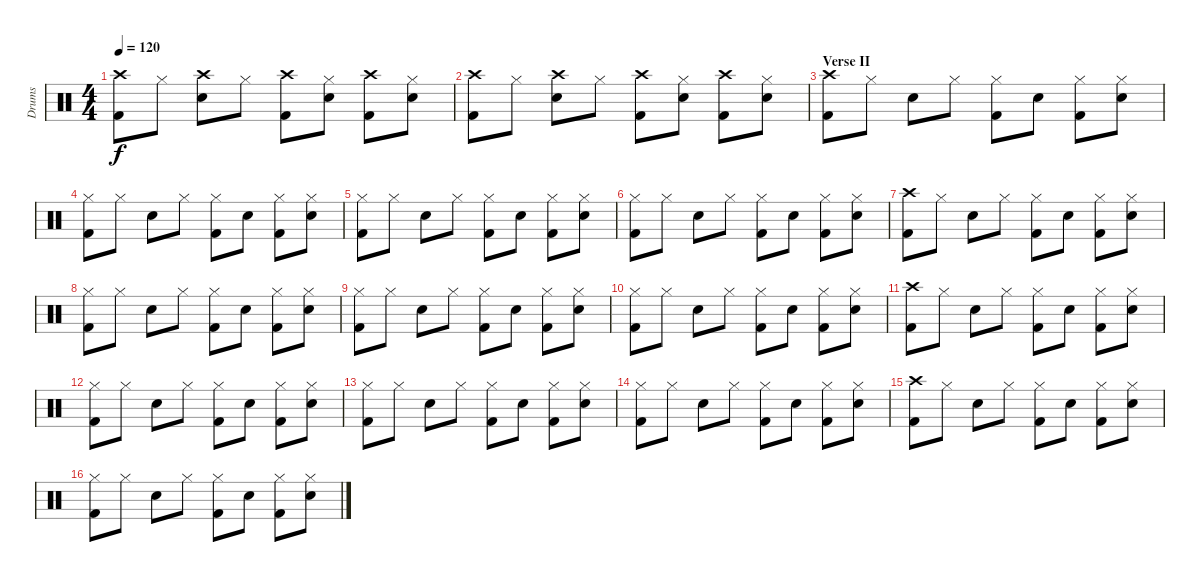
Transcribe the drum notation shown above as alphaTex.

\track ("Drums" "Drums") {instrument percussion}
\staff {score}
\articulation defaults
\ts (4 4)
\tempo 120
\clef neutral
\ks c
("Kick (hit) 2" "Crash high (hit)").8{dy f} "Hi-Hat (closed)".8 ("Snare (hit) 2" "Crash high (hit)").8 "Hi-Hat (closed)".8 ("Kick (hit) 2" "Crash high (hit)").8 ("Snare (hit) 2" "Hi-Hat (closed)").8 ("Kick (hit) 2" "Crash high (hit)").8 ("Snare (hit) 2" "Hi-Hat (closed)").8 |
("Kick (hit) 2" "Crash high (hit)").8 "Hi-Hat (closed)".8 ("Snare (hit) 2" "Crash high (hit)").8 "Hi-Hat (closed)".8 ("Kick (hit) 2" "Crash high (hit)").8 ("Snare (hit) 2" "Hi-Hat (closed)").8 ("Kick (hit) 2" "Crash high (hit)").8 ("Snare (hit) 2" "Hi-Hat (closed)").8 |
\section ("" "Verse II")
("Kick (hit) 2" "Crash high (hit)").8 "Hi-Hat (closed)".8 "Snare (hit) 2".8 "Hi-Hat (closed)".8 ("Kick (hit) 2" "Hi-Hat (closed)").8 "Snare (hit) 2".8 ("Kick (hit) 2" "Hi-Hat (closed)").8 ("Snare (hit) 2" "Hi-Hat (closed)").8 |
("Kick (hit) 2" "Hi-Hat (closed)").8 "Hi-Hat (closed)".8 "Snare (hit) 2".8 "Hi-Hat (closed)".8 ("Kick (hit) 2" "Hi-Hat (closed)").8 "Snare (hit) 2".8 ("Kick (hit) 2" "Hi-Hat (closed)").8 ("Snare (hit) 2" "Hi-Hat (closed)").8 |
("Kick (hit) 2" "Hi-Hat (closed)").8 "Hi-Hat (closed)".8 "Snare (hit) 2".8 "Hi-Hat (closed)".8 ("Kick (hit) 2" "Hi-Hat (closed)").8 "Snare (hit) 2".8 ("Kick (hit) 2" "Hi-Hat (closed)").8 ("Snare (hit) 2" "Hi-Hat (closed)").8 |
("Kick (hit) 2" "Hi-Hat (closed)").8 "Hi-Hat (closed)".8 "Snare (hit) 2".8 "Hi-Hat (closed)".8 ("Kick (hit) 2" "Hi-Hat (closed)").8 "Snare (hit) 2".8 ("Kick (hit) 2" "Hi-Hat (closed)").8 ("Snare (hit) 2" "Hi-Hat (closed)").8 |
("Kick (hit) 2" "Crash high (hit)").8 "Hi-Hat (closed)".8 "Snare (hit) 2".8 "Hi-Hat (closed)".8 ("Kick (hit) 2" "Hi-Hat (closed)").8 "Snare (hit) 2".8 ("Kick (hit) 2" "Hi-Hat (closed)").8 ("Snare (hit) 2" "Hi-Hat (closed)").8 |
("Kick (hit) 2" "Hi-Hat (closed)").8 "Hi-Hat (closed)".8 "Snare (hit) 2".8 "Hi-Hat (closed)".8 ("Kick (hit) 2" "Hi-Hat (closed)").8 "Snare (hit) 2".8 ("Kick (hit) 2" "Hi-Hat (closed)").8 ("Snare (hit) 2" "Hi-Hat (closed)").8 |
("Kick (hit) 2" "Hi-Hat (closed)").8 "Hi-Hat (closed)".8 "Snare (hit) 2".8 "Hi-Hat (closed)".8 ("Kick (hit) 2" "Hi-Hat (closed)").8 "Snare (hit) 2".8 ("Kick (hit) 2" "Hi-Hat (closed)").8 ("Snare (hit) 2" "Hi-Hat (closed)").8 |
("Kick (hit) 2" "Hi-Hat (closed)").8 "Hi-Hat (closed)".8 "Snare (hit) 2".8 "Hi-Hat (closed)".8 ("Kick (hit) 2" "Hi-Hat (closed)").8 "Snare (hit) 2".8 ("Kick (hit) 2" "Hi-Hat (closed)").8 ("Snare (hit) 2" "Hi-Hat (closed)").8 |
("Kick (hit) 2" "Crash high (hit)").8 "Hi-Hat (closed)".8 "Snare (hit) 2".8 "Hi-Hat (closed)".8 ("Kick (hit) 2" "Hi-Hat (closed)").8 "Snare (hit) 2".8 ("Kick (hit) 2" "Hi-Hat (closed)").8 ("Snare (hit) 2" "Hi-Hat (closed)").8 |
("Kick (hit) 2" "Hi-Hat (closed)").8 "Hi-Hat (closed)".8 "Snare (hit) 2".8 "Hi-Hat (closed)".8 ("Kick (hit) 2" "Hi-Hat (closed)").8 "Snare (hit) 2".8 ("Kick (hit) 2" "Hi-Hat (closed)").8 ("Snare (hit) 2" "Hi-Hat (closed)").8 |
("Kick (hit) 2" "Hi-Hat (closed)").8 "Hi-Hat (closed)".8 "Snare (hit) 2".8 "Hi-Hat (closed)".8 ("Kick (hit) 2" "Hi-Hat (closed)").8 "Snare (hit) 2".8 ("Kick (hit) 2" "Hi-Hat (closed)").8 ("Snare (hit) 2" "Hi-Hat (closed)").8 |
("Kick (hit) 2" "Hi-Hat (closed)").8 "Hi-Hat (closed)".8 "Snare (hit) 2".8 "Hi-Hat (closed)".8 ("Kick (hit) 2" "Hi-Hat (closed)").8 "Snare (hit) 2".8 ("Kick (hit) 2" "Hi-Hat (closed)").8 ("Snare (hit) 2" "Hi-Hat (closed)").8 |
("Kick (hit) 2" "Crash high (hit)").8 "Hi-Hat (closed)".8 "Snare (hit) 2".8 "Hi-Hat (closed)".8 ("Kick (hit) 2" "Hi-Hat (closed)").8 "Snare (hit) 2".8 ("Kick (hit) 2" "Hi-Hat (closed)").8 ("Snare (hit) 2" "Hi-Hat (closed)").8 |
("Kick (hit) 2" "Hi-Hat (closed)").8 "Hi-Hat (closed)".8 "Snare (hit) 2".8 "Hi-Hat (closed)".8 ("Kick (hit) 2" "Hi-Hat (closed)").8 "Snare (hit) 2".8 ("Kick (hit) 2" "Hi-Hat (closed)").8 ("Snare (hit) 2" "Hi-Hat (closed)").8
